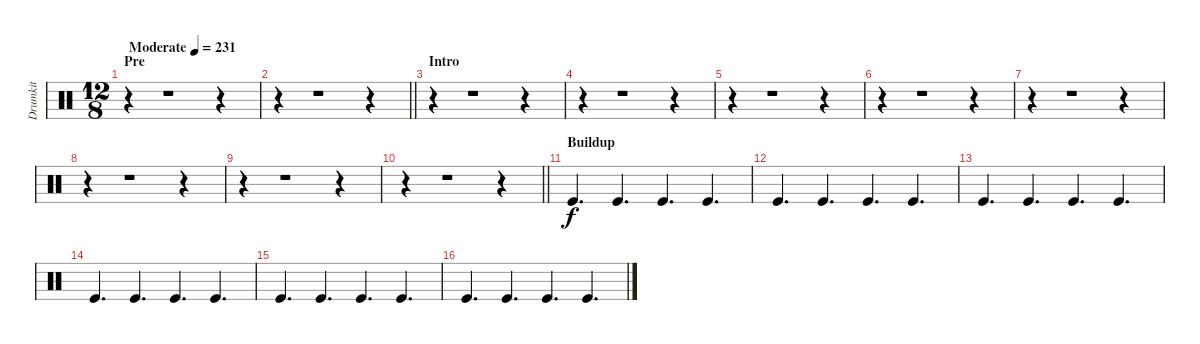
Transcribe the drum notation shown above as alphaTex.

\track ("Drumkit" "Drumkit") {instrument percussion}
\staff {score}
\articulation defaults
\ts (12 8)
\section ("" "Pre")
\tempo (231 "Moderate")
\clef neutral
\ks c
r.4{dy f} r.1 r.4 |
\barLineRight lightlight
r.4 r.1 r.4 |
\section ("" "Intro")
r.4 r.1 r.4 |
r.4 r.1 r.4 |
r.4 r.1 r.4 |
r.4 r.1 r.4 |
r.4 r.1 r.4 |
r.4 r.1 r.4 |
r.4 r.1 r.4 |
\barLineRight lightlight
r.4 r.1 r.4 |
\section ("" "Buildup")
"Kick (hit)".4{d} "Kick (hit)".4{d} "Kick (hit)".4{d} "Kick (hit)".4{d} |
"Kick (hit)".4{d} "Kick (hit)".4{d} "Kick (hit)".4{d} "Kick (hit)".4{d} |
"Kick (hit)".4{d} "Kick (hit)".4{d} "Kick (hit)".4{d} "Kick (hit)".4{d} |
"Kick (hit)".4{d} "Kick (hit)".4{d} "Kick (hit)".4{d} "Kick (hit)".4{d} |
"Kick (hit)".4{d} "Kick (hit)".4{d} "Kick (hit)".4{d} "Kick (hit)".4{d} |
"Kick (hit)".4{d} "Kick (hit)".4{d} "Kick (hit)".4{d} "Kick (hit)".4{d}
